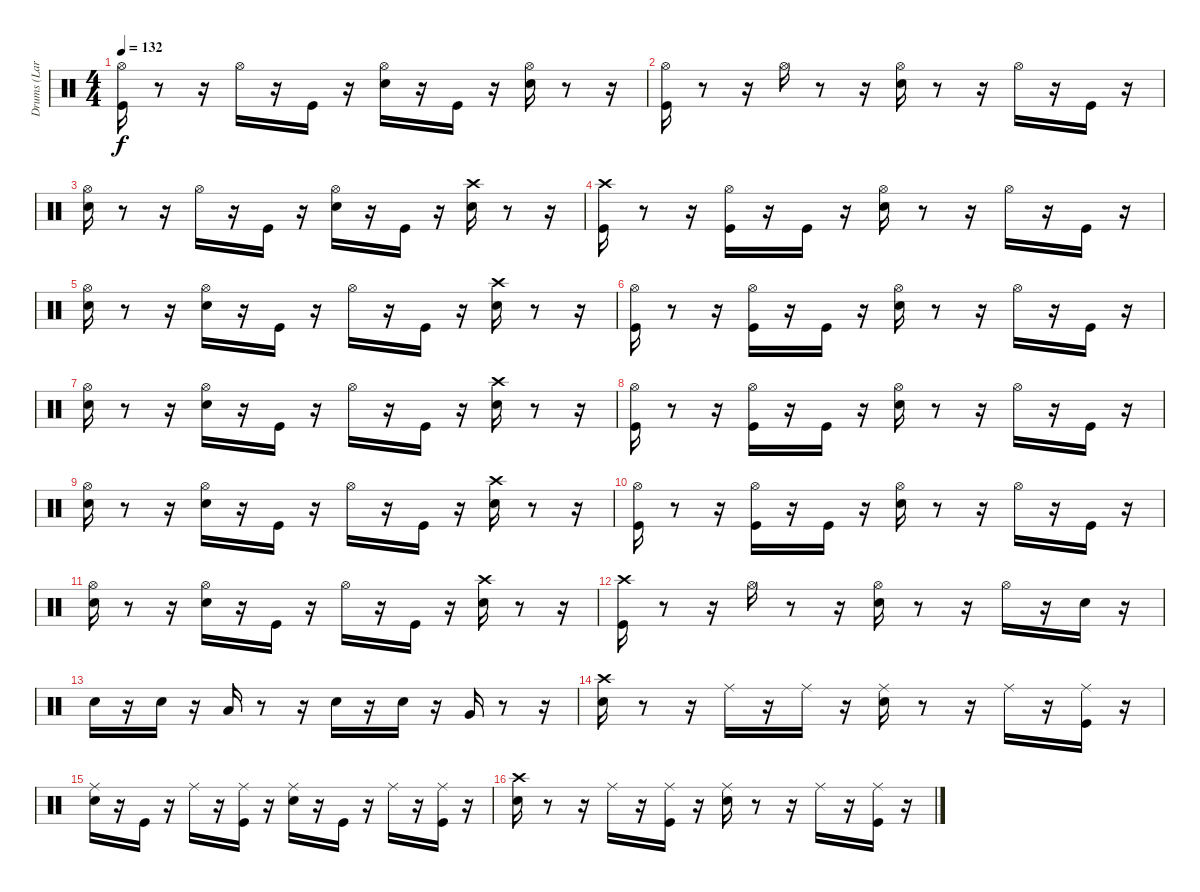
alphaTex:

\track ("Drums (Lars)" "Drums (Lar") {instrument percussion}
\staff {score}
\articulation defaults
\ts (4 4)
\tempo 132
\clef neutral
\ks c
("Kick (hit)" "Hi-Hat (open)").16{dy f} r.8 r.16 "Hi-Hat (open)".16 r.16 "Kick (hit)".16 r.16 ("Hi-Hat (open)" "Snare (hit) 2").16 r.16 "Kick (hit)".16 r.16 ("Hi-Hat (open)" "Snare (hit) 2").16 r.8 r.16 |
("Hi-Hat (open)" "Kick (hit)").16 r.8 r.16 "Hi-Hat (open)".16 r.8 r.16 ("Hi-Hat (open)" "Snare (hit) 2").16 r.8 r.16 "Hi-Hat (open)".16 r.16 "Kick (hit)".16 r.16 |
("Hi-Hat (open)" "Snare (hit) 2").16 r.8 r.16 "Hi-Hat (open)".16 r.16 "Kick (hit)".16 r.16 ("Hi-Hat (open)" "Snare (hit) 2").16 r.16 "Kick (hit)".16 r.16 ("Snare (hit) 2" "Crash high (hit)").16 r.8 r.16 |
("Kick (hit)" "Crash high (hit)").16 r.8 r.16 ("Hi-Hat (open)" "Kick (hit)").16 r.16 "Kick (hit)".16 r.16 ("Hi-Hat (open)" "Snare (hit) 2").16 r.8 r.16 "Hi-Hat (open)".16 r.16 "Kick (hit)".16 r.16 |
("Hi-Hat (open)" "Snare (hit) 2").16 r.8 r.16 ("Hi-Hat (open)" "Snare (hit) 2").16 r.16 "Kick (hit)".16 r.16 "Hi-Hat (open)".16 r.16 "Kick (hit)".16 r.16 ("Snare (hit) 2" "Crash high (hit)").16 r.8 r.16 |
("Hi-Hat (open)" "Kick (hit)").16 r.8 r.16 ("Kick (hit)" "Hi-Hat (open)").16 r.16 "Kick (hit)".16 r.16 ("Hi-Hat (open)" "Snare (hit) 2").16 r.8 r.16 "Hi-Hat (open)".16 r.16 "Kick (hit)".16 r.16 |
("Hi-Hat (open)" "Snare (hit) 2").16 r.8 r.16 ("Hi-Hat (open)" "Snare (hit) 2").16 r.16 "Kick (hit)".16 r.16 "Hi-Hat (open)".16 r.16 "Kick (hit)".16 r.16 ("Snare (hit) 2" "Crash high (hit)").16 r.8 r.16 |
("Hi-Hat (open)" "Kick (hit)").16 r.8 r.16 ("Kick (hit)" "Hi-Hat (open)").16 r.16 "Kick (hit)".16 r.16 ("Hi-Hat (open)" "Snare (hit) 2").16 r.8 r.16 "Hi-Hat (open)".16 r.16 "Kick (hit)".16 r.16 |
("Hi-Hat (open)" "Snare (hit) 2").16 r.8 r.16 ("Hi-Hat (open)" "Snare (hit) 2").16 r.16 "Kick (hit)".16 r.16 "Hi-Hat (open)".16 r.16 "Kick (hit)".16 r.16 ("Snare (hit) 2" "Crash high (hit)").16 r.8 r.16 |
("Hi-Hat (open)" "Kick (hit)").16 r.8 r.16 ("Kick (hit)" "Hi-Hat (open)").16 r.16 "Kick (hit)".16 r.16 ("Hi-Hat (open)" "Snare (hit) 2").16 r.8 r.16 "Hi-Hat (open)".16 r.16 "Kick (hit)".16 r.16 |
("Hi-Hat (open)" "Snare (hit) 2").16 r.8 r.16 ("Hi-Hat (open)" "Snare (hit) 2").16 r.16 "Kick (hit)".16 r.16 "Hi-Hat (open)".16 r.16 "Kick (hit)".16 r.16 ("Snare (hit) 2" "Crash high (hit)").16 r.8 r.16 |
("Kick (hit)" "Crash high (hit)").16 r.8 r.16 "Hi-Hat (open)".16 r.8 r.16 ("Hi-Hat (open)" "Snare (hit) 2").16 r.8 r.16 "Hi-Hat (open)".16 r.16 "Snare (hit) 2".16 r.16 |
"Snare (hit) 2".16 r.16 "Snare (hit) 2".16 r.16 "Low Tom (hit)".16 r.8 r.16 "Snare (hit) 2".16 r.16 "Snare (hit) 2".16 r.16 "Very Low Tom (hit)".16 r.8 r.16 |
("Snare (hit) 2" "Crash high (hit)").16 r.8 r.16 "Ride (middle)".16 r.16 "Ride (middle)".16 r.16 ("Ride (middle)" "Snare (hit) 2").16 r.8 r.16 "Ride (middle)".16 r.16 ("Ride (middle)" "Kick (hit)").16 r.16 |
("Ride (middle)" "Snare (hit) 2").16 r.16 "Kick (hit)".16 r.16 "Ride (middle)".16 r.16 ("Ride (middle)" "Kick (hit)").16 r.16 ("Ride (middle)" "Snare (hit) 2").16 r.16 "Kick (hit)".16 r.16 "Ride (middle)".16 r.16 ("Ride (middle)" "Kick (hit)").16 r.16 |
("Snare (hit) 2" "Crash high (hit)").16 r.8 r.16 "Ride (middle)".16 r.16 ("Ride (middle)" "Kick (hit)").16 r.16 ("Ride (middle)" "Snare (hit) 2").16 r.8 r.16 "Ride (middle)".16 r.16 ("Ride (middle)" "Kick (hit)").16 r.16
